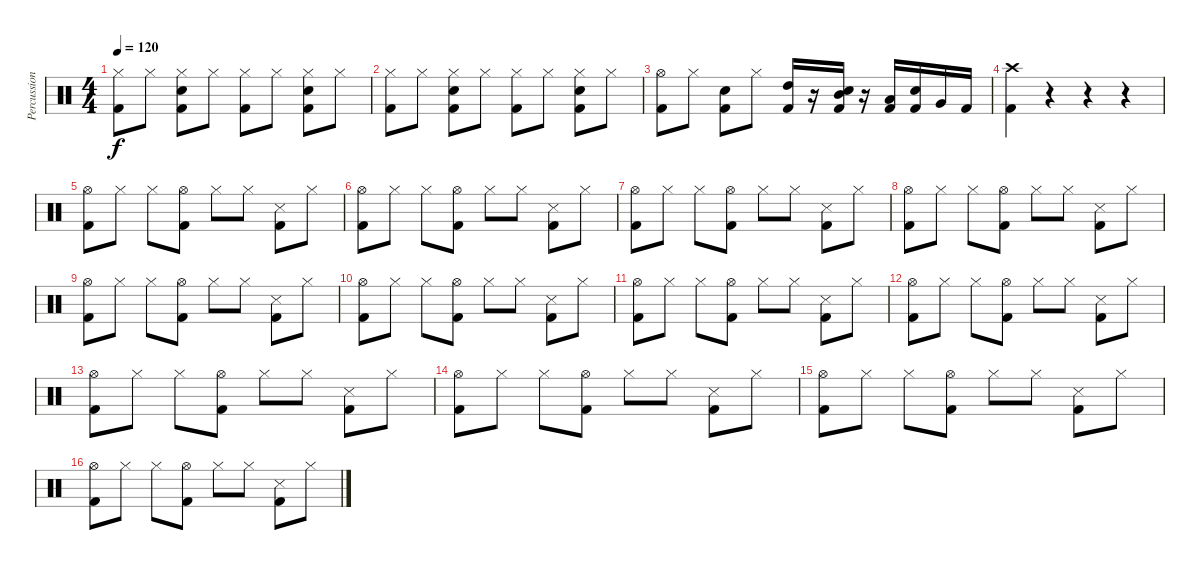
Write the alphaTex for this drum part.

\track ("Percussion" "Percussion") {instrument percussion}
\staff {score}
\articulation defaults
\ts (4 4)
\tempo 120
\clef neutral
\ks c
("Hi-Hat (closed)" "Kick (hit) 2").8{dy f} "Hi-Hat (closed)".8 ("Hi-Hat (closed)" "Snare (hit) 2" "Kick (hit) 2").8 "Hi-Hat (closed)".8 ("Hi-Hat (closed)" "Kick (hit) 2").8 "Hi-Hat (closed)".8 ("Hi-Hat (closed)" "Snare (hit) 2" "Kick (hit) 2").8 "Hi-Hat (closed)".8 |
("Hi-Hat (closed)" "Kick (hit) 2").8 "Hi-Hat (closed)".8 ("Hi-Hat (closed)" "Snare (hit) 2" "Kick (hit) 2").8 "Hi-Hat (closed)".8 ("Hi-Hat (closed)" "Kick (hit) 2").8 "Hi-Hat (closed)".8 ("Hi-Hat (closed)" "Snare (hit) 2" "Kick (hit) 2").8 "Hi-Hat (closed)".8 |
("Hi-Hat (open)" "Kick (hit) 2").8 "Hi-Hat (closed)".8 ("Snare (hit) 2" "Kick (hit) 2").8 "Hi-Hat (closed)".8 ("High Tom (hit)" "Kick (hit) 2").16 r.16 ("Mid Tom (hit)" "Snare (hit) 2" "Kick (hit) 2").16 r.16 ("Low Tom (hit)" "Kick (hit) 2").16 ("Snare (hit) 2" "Kick (hit) 2").16 "Very Low Tom (hit)".16 "Kick (hit) 2".16 |
("Crash high (hit)" "Kick (hit) 2").4 r.4 r.4 r.4 |
("Hi-Hat (open)" "Kick (hit) 2").8 "Hi-Hat (closed)".8 "Hi-Hat (closed)".8 ("Hi-Hat (open)" "Kick (hit) 2").8 "Hi-Hat (closed)".8 "Hi-Hat (closed)".8 ("Snare (side stick) 3" "Kick (hit) 2").8 "Hi-Hat (closed)".8 |
("Hi-Hat (open)" "Kick (hit) 2").8 "Hi-Hat (closed)".8 "Hi-Hat (closed)".8 ("Hi-Hat (open)" "Kick (hit) 2").8 "Hi-Hat (closed)".8 "Hi-Hat (closed)".8 ("Snare (side stick) 3" "Kick (hit) 2").8 "Hi-Hat (closed)".8 |
("Hi-Hat (open)" "Kick (hit) 2").8 "Hi-Hat (closed)".8 "Hi-Hat (closed)".8 ("Hi-Hat (open)" "Kick (hit) 2").8 "Hi-Hat (closed)".8 "Hi-Hat (closed)".8 ("Snare (side stick) 3" "Kick (hit) 2").8 "Hi-Hat (closed)".8 |
("Hi-Hat (open)" "Kick (hit) 2").8 "Hi-Hat (closed)".8 "Hi-Hat (closed)".8 ("Hi-Hat (open)" "Kick (hit) 2").8 "Hi-Hat (closed)".8 "Hi-Hat (closed)".8 ("Snare (side stick) 3" "Kick (hit) 2").8 "Hi-Hat (closed)".8 |
("Hi-Hat (open)" "Kick (hit) 2").8 "Hi-Hat (closed)".8 "Hi-Hat (closed)".8 ("Hi-Hat (open)" "Kick (hit) 2").8 "Hi-Hat (closed)".8 "Hi-Hat (closed)".8 ("Snare (side stick) 3" "Kick (hit) 2").8 "Hi-Hat (closed)".8 |
("Hi-Hat (open)" "Kick (hit) 2").8 "Hi-Hat (closed)".8 "Hi-Hat (closed)".8 ("Hi-Hat (open)" "Kick (hit) 2").8 "Hi-Hat (closed)".8 "Hi-Hat (closed)".8 ("Snare (side stick) 3" "Kick (hit) 2").8 "Hi-Hat (closed)".8 |
("Hi-Hat (open)" "Kick (hit) 2").8 "Hi-Hat (closed)".8 "Hi-Hat (closed)".8 ("Hi-Hat (open)" "Kick (hit) 2").8 "Hi-Hat (closed)".8 "Hi-Hat (closed)".8 ("Snare (side stick) 3" "Kick (hit) 2").8 "Hi-Hat (closed)".8 |
("Hi-Hat (open)" "Kick (hit) 2").8 "Hi-Hat (closed)".8 "Hi-Hat (closed)".8 ("Hi-Hat (open)" "Kick (hit) 2").8 "Hi-Hat (closed)".8 "Hi-Hat (closed)".8 ("Snare (side stick) 3" "Kick (hit) 2").8 "Hi-Hat (closed)".8 |
("Hi-Hat (open)" "Kick (hit) 2").8 "Hi-Hat (closed)".8 "Hi-Hat (closed)".8 ("Hi-Hat (open)" "Kick (hit) 2").8 "Hi-Hat (closed)".8 "Hi-Hat (closed)".8 ("Snare (side stick) 3" "Kick (hit) 2").8 "Hi-Hat (closed)".8 |
("Hi-Hat (open)" "Kick (hit) 2").8 "Hi-Hat (closed)".8 "Hi-Hat (closed)".8 ("Hi-Hat (open)" "Kick (hit) 2").8 "Hi-Hat (closed)".8 "Hi-Hat (closed)".8 ("Snare (side stick) 3" "Kick (hit) 2").8 "Hi-Hat (closed)".8 |
("Hi-Hat (open)" "Kick (hit) 2").8 "Hi-Hat (closed)".8 "Hi-Hat (closed)".8 ("Hi-Hat (open)" "Kick (hit) 2").8 "Hi-Hat (closed)".8 "Hi-Hat (closed)".8 ("Snare (side stick) 3" "Kick (hit) 2").8 "Hi-Hat (closed)".8 |
("Hi-Hat (open)" "Kick (hit) 2").8 "Hi-Hat (closed)".8 "Hi-Hat (closed)".8 ("Hi-Hat (open)" "Kick (hit) 2").8 "Hi-Hat (closed)".8 "Hi-Hat (closed)".8 ("Snare (side stick) 3" "Kick (hit) 2").8 "Hi-Hat (closed)".8
